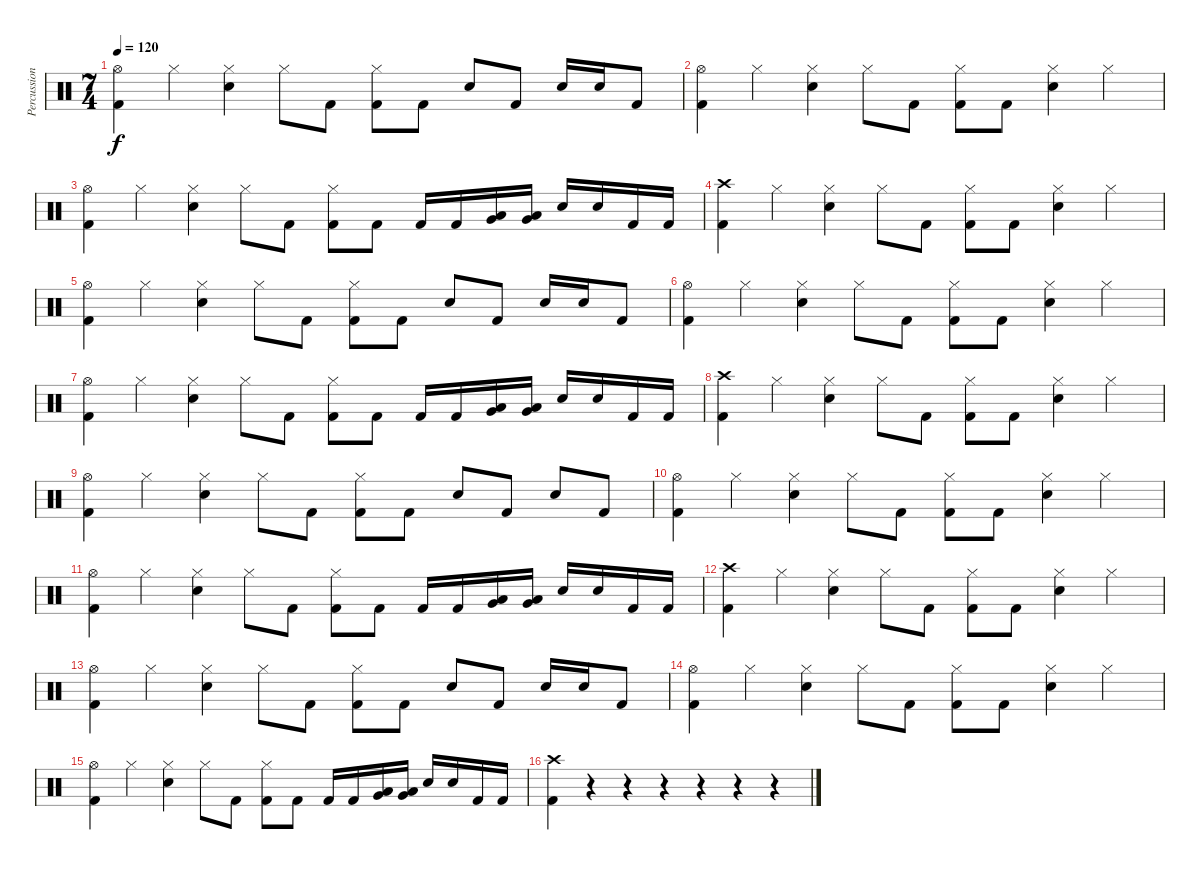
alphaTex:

\track ("Percussion" "Percussion") {instrument percussion}
\staff {score}
\articulation defaults
\ts (7 4)
\tempo 120
\clef neutral
\ks c
("Hi-Hat (open)" "Kick (hit) 2").4{dy f} "Hi-Hat (closed)".4 ("Hi-Hat (closed)" "Electric Snare (hit)").4 "Hi-Hat (closed)".8 "Kick (hit) 2".8 ("Hi-Hat (closed)" "Kick (hit) 2").8 "Kick (hit) 2".8 "Electric Snare (hit)".8 "Kick (hit) 2".8 "Electric Snare (hit)".16 "Electric Snare (hit)".16 "Kick (hit) 2".8 |
("Hi-Hat (open)" "Kick (hit) 2").4 "Hi-Hat (closed)".4 ("Hi-Hat (closed)" "Electric Snare (hit)").4 "Hi-Hat (closed)".8 "Kick (hit) 2".8 ("Hi-Hat (closed)" "Kick (hit) 2").8 "Kick (hit) 2".8 ("Hi-Hat (closed)" "Electric Snare (hit)").4 "Hi-Hat (closed)".4 |
("Hi-Hat (open)" "Kick (hit) 2").4 "Hi-Hat (closed)".4 ("Hi-Hat (closed)" "Electric Snare (hit)").4 "Hi-Hat (closed)".8 "Kick (hit) 2".8 ("Hi-Hat (closed)" "Kick (hit) 2").8 "Kick (hit) 2".8 "Kick (hit) 2".16 "Kick (hit) 2".16 ("Low Tom (hit)" "Very Low Tom (hit)").16 ("Low Tom (hit)" "Very Low Tom (hit)").16 "Electric Snare (hit)".16 "Electric Snare (hit)".16 "Kick (hit) 2".16 "Kick (hit) 2".16 |
("Crash high (hit)" "Kick (hit) 2").4 "Hi-Hat (closed)".4 ("Hi-Hat (closed)" "Electric Snare (hit)").4 "Hi-Hat (closed)".8 "Kick (hit) 2".8 ("Hi-Hat (closed)" "Kick (hit) 2").8 "Kick (hit) 2".8 ("Hi-Hat (closed)" "Electric Snare (hit)").4 "Hi-Hat (closed)".4 |
("Hi-Hat (open)" "Kick (hit) 2").4 "Hi-Hat (closed)".4 ("Hi-Hat (closed)" "Electric Snare (hit)").4 "Hi-Hat (closed)".8 "Kick (hit) 2".8 ("Hi-Hat (closed)" "Kick (hit) 2").8 "Kick (hit) 2".8 "Electric Snare (hit)".8 "Kick (hit) 2".8 "Electric Snare (hit)".16 "Electric Snare (hit)".16 "Kick (hit) 2".8 |
("Hi-Hat (open)" "Kick (hit) 2").4 "Hi-Hat (closed)".4 ("Hi-Hat (closed)" "Electric Snare (hit)").4 "Hi-Hat (closed)".8 "Kick (hit) 2".8 ("Hi-Hat (closed)" "Kick (hit) 2").8 "Kick (hit) 2".8 ("Hi-Hat (closed)" "Electric Snare (hit)").4 "Hi-Hat (closed)".4 |
("Hi-Hat (open)" "Kick (hit) 2").4 "Hi-Hat (closed)".4 ("Hi-Hat (closed)" "Electric Snare (hit)").4 "Hi-Hat (closed)".8 "Kick (hit) 2".8 ("Hi-Hat (closed)" "Kick (hit) 2").8 "Kick (hit) 2".8 "Kick (hit) 2".16 "Kick (hit) 2".16 ("Low Tom (hit)" "Very Low Tom (hit)").16 ("Low Tom (hit)" "Very Low Tom (hit)").16 "Electric Snare (hit)".16 "Electric Snare (hit)".16 "Kick (hit) 2".16 "Kick (hit) 2".16 |
("Crash high (hit)" "Kick (hit) 2").4 "Hi-Hat (closed)".4 ("Hi-Hat (closed)" "Electric Snare (hit)").4 "Hi-Hat (closed)".8 "Kick (hit) 2".8 ("Hi-Hat (closed)" "Kick (hit) 2").8 "Kick (hit) 2".8 ("Hi-Hat (closed)" "Electric Snare (hit)").4 "Hi-Hat (closed)".4 |
("Hi-Hat (open)" "Kick (hit) 2").4 "Hi-Hat (closed)".4 ("Hi-Hat (closed)" "Electric Snare (hit)").4 "Hi-Hat (closed)".8 "Kick (hit) 2".8 ("Hi-Hat (closed)" "Kick (hit) 2").8 "Kick (hit) 2".8 "Electric Snare (hit)".8 "Kick (hit) 2".8 "Electric Snare (hit)".8 "Kick (hit) 2".8 |
("Hi-Hat (open)" "Kick (hit) 2").4 "Hi-Hat (closed)".4 ("Hi-Hat (closed)" "Electric Snare (hit)").4 "Hi-Hat (closed)".8 "Kick (hit) 2".8 ("Hi-Hat (closed)" "Kick (hit) 2").8 "Kick (hit) 2".8 ("Hi-Hat (closed)" "Electric Snare (hit)").4 "Hi-Hat (closed)".4 |
("Hi-Hat (open)" "Kick (hit) 2").4 "Hi-Hat (closed)".4 ("Hi-Hat (closed)" "Electric Snare (hit)").4 "Hi-Hat (closed)".8 "Kick (hit) 2".8 ("Hi-Hat (closed)" "Kick (hit) 2").8 "Kick (hit) 2".8 "Kick (hit) 2".16 "Kick (hit) 2".16 ("Low Tom (hit)" "Very Low Tom (hit)").16 ("Low Tom (hit)" "Very Low Tom (hit)").16 "Electric Snare (hit)".16 "Electric Snare (hit)".16 "Kick (hit) 2".16 "Kick (hit) 2".16 |
("Crash high (hit)" "Kick (hit) 2").4 "Hi-Hat (closed)".4 ("Hi-Hat (closed)" "Electric Snare (hit)").4 "Hi-Hat (closed)".8 "Kick (hit) 2".8 ("Hi-Hat (closed)" "Kick (hit) 2").8 "Kick (hit) 2".8 ("Hi-Hat (closed)" "Electric Snare (hit)").4 "Hi-Hat (closed)".4 |
("Hi-Hat (open)" "Kick (hit) 2").4 "Hi-Hat (closed)".4 ("Hi-Hat (closed)" "Electric Snare (hit)").4 "Hi-Hat (closed)".8 "Kick (hit) 2".8 ("Hi-Hat (closed)" "Kick (hit) 2").8 "Kick (hit) 2".8 "Electric Snare (hit)".8 "Kick (hit) 2".8 "Electric Snare (hit)".16 "Electric Snare (hit)".16 "Kick (hit) 2".8 |
("Hi-Hat (open)" "Kick (hit) 2").4 "Hi-Hat (closed)".4 ("Hi-Hat (closed)" "Electric Snare (hit)").4 "Hi-Hat (closed)".8 "Kick (hit) 2".8 ("Hi-Hat (closed)" "Kick (hit) 2").8 "Kick (hit) 2".8 ("Hi-Hat (closed)" "Electric Snare (hit)").4 "Hi-Hat (closed)".4 |
("Hi-Hat (open)" "Kick (hit) 2").4 "Hi-Hat (closed)".4 ("Hi-Hat (closed)" "Electric Snare (hit)").4 "Hi-Hat (closed)".8 "Kick (hit) 2".8 ("Hi-Hat (closed)" "Kick (hit) 2").8 "Kick (hit) 2".8 "Kick (hit) 2".16 "Kick (hit) 2".16 ("Low Tom (hit)" "Very Low Tom (hit)").16 ("Low Tom (hit)" "Very Low Tom (hit)").16 "Electric Snare (hit)".16 "Electric Snare (hit)".16 "Kick (hit) 2".16 "Kick (hit) 2".16 |
("Crash high (hit)" "Kick (hit) 2").4 r.4 r.4 r.4 r.4 r.4 r.4
